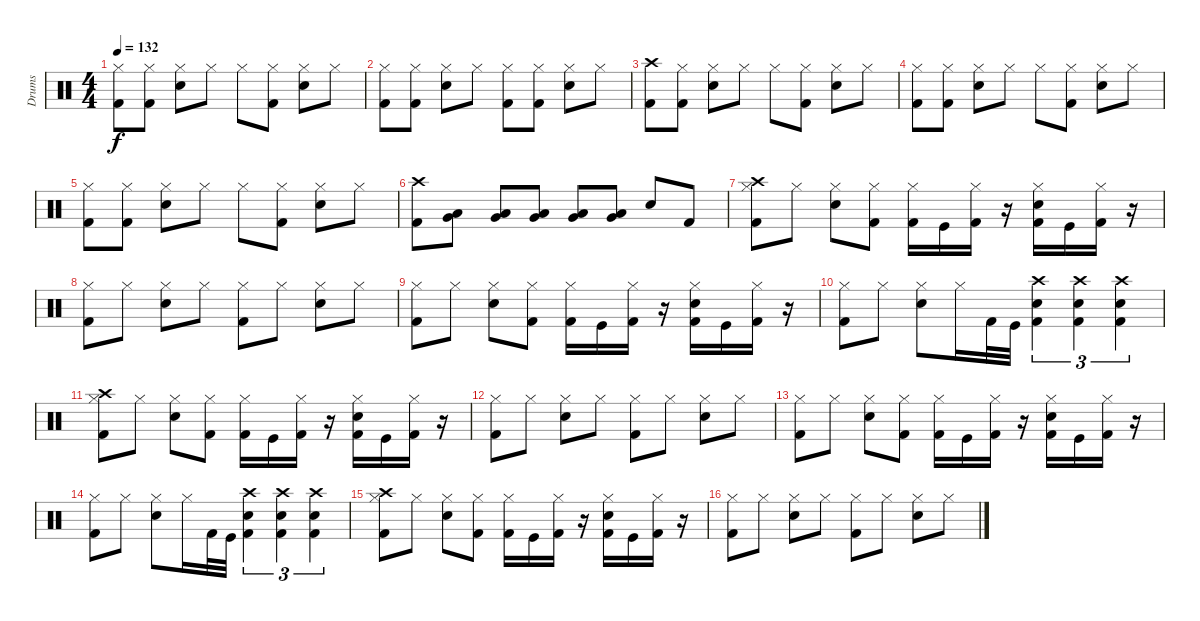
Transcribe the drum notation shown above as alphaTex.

\track ("Drums" "Drums") {instrument percussion}
\staff {score}
\articulation defaults
\ts (4 4)
\tempo 132
\clef neutral
\ks c
("Hi-Hat (closed)" "Kick (hit) 2").8{dy f} ("Hi-Hat (closed)" "Kick (hit) 2").8 ("Hi-Hat (closed)" "Snare (hit) 2").8 "Hi-Hat (closed)".8 "Hi-Hat (closed)".8 ("Hi-Hat (closed)" "Kick (hit) 2").8 ("Hi-Hat (closed)" "Snare (hit) 2").8 "Hi-Hat (closed)".8 |
("Hi-Hat (closed)" "Kick (hit) 2").8 ("Hi-Hat (closed)" "Kick (hit) 2").8 ("Hi-Hat (closed)" "Snare (hit) 2").8 "Hi-Hat (closed)".8 ("Hi-Hat (closed)" "Kick (hit) 2").8 ("Hi-Hat (closed)" "Kick (hit) 2").8 ("Hi-Hat (closed)" "Snare (hit) 2").8 "Hi-Hat (closed)".8 |
("Crash high (hit)" "Kick (hit) 2").8 ("Hi-Hat (closed)" "Kick (hit) 2").8 ("Hi-Hat (closed)" "Snare (hit) 2").8 "Hi-Hat (closed)".8 "Hi-Hat (closed)".8 ("Hi-Hat (closed)" "Kick (hit) 2").8 ("Hi-Hat (closed)" "Snare (hit) 2").8 "Hi-Hat (closed)".8 |
("Hi-Hat (closed)" "Kick (hit) 2").8 ("Hi-Hat (closed)" "Kick (hit) 2").8 ("Hi-Hat (closed)" "Snare (hit) 2").8 "Hi-Hat (closed)".8 "Hi-Hat (closed)".8 ("Hi-Hat (closed)" "Kick (hit) 2").8 ("Hi-Hat (closed)" "Snare (hit) 2").8 "Hi-Hat (closed)".8 |
("Hi-Hat (closed)" "Kick (hit) 2").8 ("Hi-Hat (closed)" "Kick (hit) 2").8 ("Hi-Hat (closed)" "Snare (hit) 2").8 "Hi-Hat (closed)".8 "Hi-Hat (closed)".8 ("Hi-Hat (closed)" "Kick (hit) 2").8 ("Hi-Hat (closed)" "Snare (hit) 2").8 "Hi-Hat (closed)".8 |
("Crash high (hit)" "Kick (hit) 2").8 ("Low Tom (hit)" "Very Low Tom (hit)").8 ("Low Tom (hit)" "Very Low Tom (hit)").8 ("Low Tom (hit)" "Very Low Tom (hit)").8 ("Low Floor Tom (hit)" "Very Low Tom (hit)").8 ("Low Floor Tom (hit)" "Very Low Tom (hit)").8 "Snare (hit) 2".8 "Kick (hit) 2".8 |
("Crash high (hit)" "Hi-Hat (closed)" "Kick (hit) 2").8 "Hi-Hat (closed)".8 ("Hi-Hat (closed)" "Snare (hit) 2").8 ("Hi-Hat (closed)" "Kick (hit) 2").8 ("Hi-Hat (closed)" "Kick (hit) 2").16 "Kick (hit)".16 ("Hi-Hat (closed)" "Kick (hit) 2").16 r.16 ("Hi-Hat (closed)" "Snare (hit) 2" "Kick (hit) 2").16 "Kick (hit)".16 ("Hi-Hat (closed)" "Kick (hit) 2").16 r.16 |
("Hi-Hat (closed)" "Kick (hit) 2").8 "Hi-Hat (closed)".8 ("Hi-Hat (closed)" "Snare (hit) 2").8 "Hi-Hat (closed)".8 ("Hi-Hat (closed)" "Kick (hit) 2").8 "Hi-Hat (closed)".8 ("Hi-Hat (closed)" "Snare (hit) 2").8 "Hi-Hat (closed)".8 |
("Hi-Hat (closed)" "Kick (hit) 2").8 "Hi-Hat (closed)".8 ("Hi-Hat (closed)" "Snare (hit) 2").8 ("Hi-Hat (closed)" "Kick (hit) 2").8 ("Hi-Hat (closed)" "Kick (hit) 2").16 "Kick (hit)".16 ("Hi-Hat (closed)" "Kick (hit) 2").16 r.16 ("Hi-Hat (closed)" "Snare (hit) 2" "Kick (hit) 2").16 "Kick (hit)".16 ("Hi-Hat (closed)" "Kick (hit) 2").16 r.16 |
("Hi-Hat (closed)" "Kick (hit) 2").8 "Hi-Hat (closed)".8 ("Hi-Hat (closed)" "Snare (hit) 2").8 "Hi-Hat (closed)".16 "Kick (hit) 2".32 "Kick (hit)".32 ("Crash high (hit)" "Kick (hit) 2" "Snare (hit) 2").4{tu (3 2)} ("Crash high (hit)" "Kick (hit) 2" "Snare (hit) 2").4{tu (3 2)} ("Crash high (hit)" "Kick (hit) 2" "Snare (hit) 2").4{tu (3 2)} |
("Crash high (hit)" "Hi-Hat (closed)" "Kick (hit) 2").8 "Hi-Hat (closed)".8 ("Hi-Hat (closed)" "Snare (hit) 2").8 ("Hi-Hat (closed)" "Kick (hit) 2").8 ("Hi-Hat (closed)" "Kick (hit) 2").16 "Kick (hit)".16 ("Hi-Hat (closed)" "Kick (hit) 2").16 r.16 ("Hi-Hat (closed)" "Snare (hit) 2" "Kick (hit) 2").16 "Kick (hit)".16 ("Hi-Hat (closed)" "Kick (hit) 2").16 r.16 |
("Hi-Hat (closed)" "Kick (hit) 2").8 "Hi-Hat (closed)".8 ("Hi-Hat (closed)" "Snare (hit) 2").8 "Hi-Hat (closed)".8 ("Hi-Hat (closed)" "Kick (hit) 2").8 "Hi-Hat (closed)".8 ("Hi-Hat (closed)" "Snare (hit) 2").8 "Hi-Hat (closed)".8 |
("Hi-Hat (closed)" "Kick (hit) 2").8 "Hi-Hat (closed)".8 ("Hi-Hat (closed)" "Snare (hit) 2").8 ("Hi-Hat (closed)" "Kick (hit) 2").8 ("Hi-Hat (closed)" "Kick (hit) 2").16 "Kick (hit)".16 ("Hi-Hat (closed)" "Kick (hit) 2").16 r.16 ("Hi-Hat (closed)" "Snare (hit) 2" "Kick (hit) 2").16 "Kick (hit)".16 ("Hi-Hat (closed)" "Kick (hit) 2").16 r.16 |
("Hi-Hat (closed)" "Kick (hit) 2").8 "Hi-Hat (closed)".8 ("Hi-Hat (closed)" "Snare (hit) 2").8 "Hi-Hat (closed)".16 "Kick (hit) 2".32 "Kick (hit)".32 ("Crash high (hit)" "Kick (hit) 2" "Snare (hit) 2").4{tu (3 2)} ("Crash high (hit)" "Kick (hit) 2" "Snare (hit) 2").4{tu (3 2)} ("Crash high (hit)" "Kick (hit) 2" "Snare (hit) 2").4{tu (3 2)} |
("Crash high (hit)" "Hi-Hat (closed)" "Kick (hit) 2").8 "Hi-Hat (closed)".8 ("Hi-Hat (closed)" "Snare (hit) 2").8 ("Hi-Hat (closed)" "Kick (hit) 2").8 ("Hi-Hat (closed)" "Kick (hit) 2").16 "Kick (hit)".16 ("Hi-Hat (closed)" "Kick (hit) 2").16 r.16 ("Hi-Hat (closed)" "Snare (hit) 2" "Kick (hit) 2").16 "Kick (hit)".16 ("Hi-Hat (closed)" "Kick (hit) 2").16 r.16 |
("Hi-Hat (closed)" "Kick (hit) 2").8 "Hi-Hat (closed)".8 ("Hi-Hat (closed)" "Snare (hit) 2").8 "Hi-Hat (closed)".8 ("Hi-Hat (closed)" "Kick (hit) 2").8 "Hi-Hat (closed)".8 ("Hi-Hat (closed)" "Snare (hit) 2").8 "Hi-Hat (closed)".8
